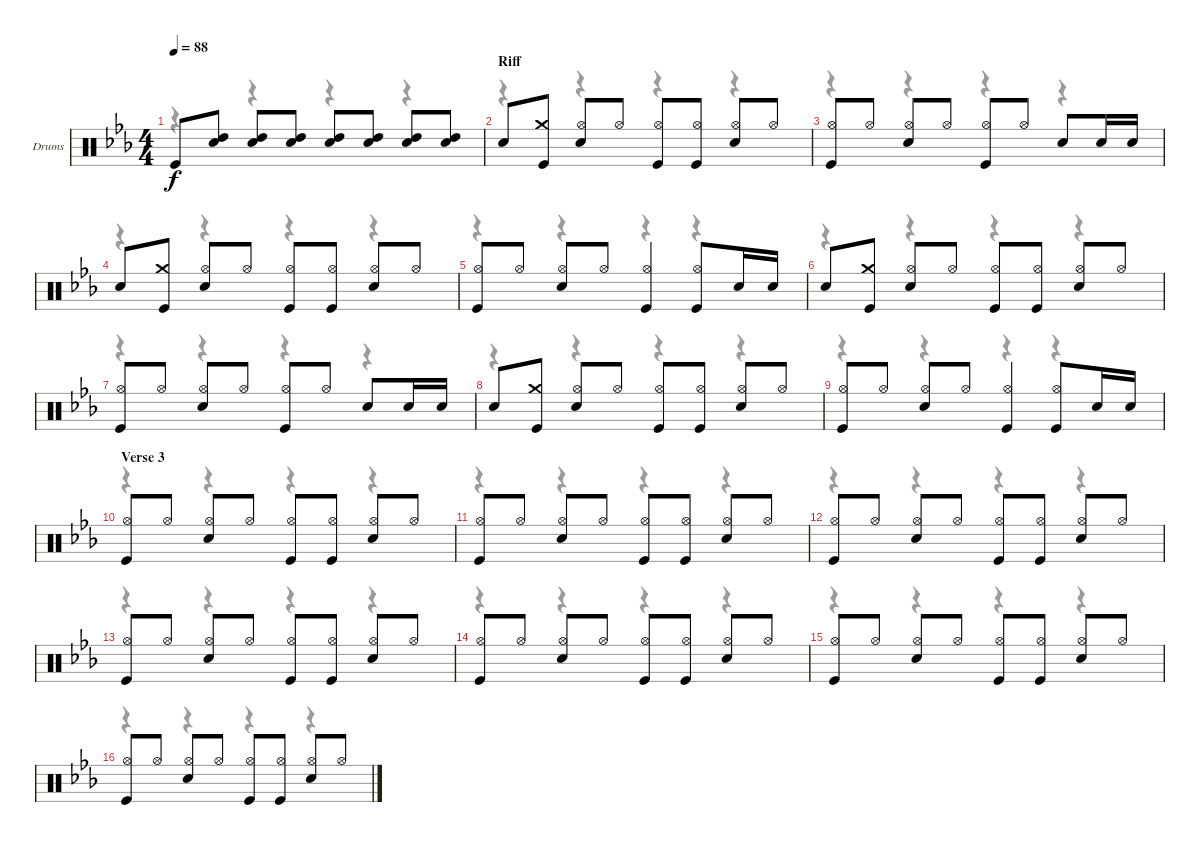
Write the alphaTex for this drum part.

\bracketExtendMode groupsimilarinstruments
\firstSystemTrackNameOrientation horizontal
\otherSystemsTrackNameOrientation horizontal
\track ("Ian Paice - Drums" "Drums") {instrument percussion}
\staff {score}
\articulation defaults
\voice
\ts (4 4)
\tempo 88
\clef neutral
\ks cminor "Kick (hit)".8{dy f}
("Snare (hit) 2" "High Tom (hit)").8 ("Snare (hit) 2" "High Tom (hit)").8 ("Snare (hit) 2" "High Tom (hit)").8 ("Snare (hit) 2" "High Tom (hit)").8 ("Snare (hit) 2" "High Tom (hit)").8 ("Snare (hit) 2" "High Tom (hit)").8 ("Snare (hit) 2" "High Tom (hit)").8 |
\section ("" "Riff")
"Snare (hit) 2".8 ("Crash medium (hit)" "Kick (hit)").8 ("Hi-Hat (open)" "Snare (hit) 2").8 "Hi-Hat (open)".8 ("Hi-Hat (open)" "Kick (hit)").8 ("Hi-Hat (open)" "Kick (hit)").8 ("Hi-Hat (open)" "Snare (hit) 2").8 "Hi-Hat (open)".8 |
("Hi-Hat (open)" "Kick (hit)").8 "Hi-Hat (open)".8 ("Hi-Hat (open)" "Snare (hit) 2").8 "Hi-Hat (open)".8 ("Hi-Hat (open)" "Kick (hit)").8 "Hi-Hat (open)".8 "Snare (hit) 2".8 "Snare (hit) 2".16 "Snare (hit) 2".16 |
"Snare (hit) 2".8 ("Crash medium (hit)" "Kick (hit)").8 ("Hi-Hat (open)" "Snare (hit) 2").8 "Hi-Hat (open)".8 ("Hi-Hat (open)" "Kick (hit)").8 ("Hi-Hat (open)" "Kick (hit)").8 ("Hi-Hat (open)" "Snare (hit) 2").8 "Hi-Hat (open)".8 |
("Hi-Hat (open)" "Kick (hit)").8 "Hi-Hat (open)".8 ("Hi-Hat (open)" "Snare (hit) 2").8 "Hi-Hat (open)".8 ("Hi-Hat (open)" "Kick (hit)").4 ("Hi-Hat (open)" "Kick (hit)").8 "Snare (hit) 2".16 "Snare (hit) 2".16 |
"Snare (hit) 2".8 ("Crash medium (hit)" "Kick (hit)").8 ("Hi-Hat (open)" "Snare (hit) 2").8 "Hi-Hat (open)".8 ("Hi-Hat (open)" "Kick (hit)").8 ("Hi-Hat (open)" "Kick (hit)").8 ("Hi-Hat (open)" "Snare (hit) 2").8 "Hi-Hat (open)".8 |
("Hi-Hat (open)" "Kick (hit)").8 "Hi-Hat (open)".8 ("Hi-Hat (open)" "Snare (hit) 2").8 "Hi-Hat (open)".8 ("Hi-Hat (open)" "Kick (hit)").8 "Hi-Hat (open)".8 "Snare (hit) 2".8 "Snare (hit) 2".16 "Snare (hit) 2".16 |
"Snare (hit) 2".8 ("Crash medium (hit)" "Kick (hit)").8 ("Hi-Hat (open)" "Snare (hit) 2").8 "Hi-Hat (open)".8 ("Hi-Hat (open)" "Kick (hit)").8 ("Hi-Hat (open)" "Kick (hit)").8 ("Hi-Hat (open)" "Snare (hit) 2").8 "Hi-Hat (open)".8 |
("Hi-Hat (open)" "Kick (hit)").8 "Hi-Hat (open)".8 ("Hi-Hat (open)" "Snare (hit) 2").8 "Hi-Hat (open)".8 ("Hi-Hat (open)" "Kick (hit)").4 ("Hi-Hat (open)" "Kick (hit)").8 "Snare (hit) 2".16 "Snare (hit) 2".16 |
\section ("" "Verse 3")
("Hi-Hat (open)" "Kick (hit)").8 "Hi-Hat (open)".8 ("Hi-Hat (open)" "Snare (hit) 2").8 "Hi-Hat (open)".8 ("Hi-Hat (open)" "Kick (hit)").8 ("Hi-Hat (open)" "Kick (hit)").8 ("Hi-Hat (open)" "Snare (hit) 2").8 "Hi-Hat (open)".8 |
("Hi-Hat (open)" "Kick (hit)").8 "Hi-Hat (open)".8 ("Hi-Hat (open)" "Snare (hit) 2").8 "Hi-Hat (open)".8 ("Hi-Hat (open)" "Kick (hit)").8 ("Hi-Hat (open)" "Kick (hit)").8 ("Hi-Hat (open)" "Snare (hit) 2").8 "Hi-Hat (open)".8 |
("Hi-Hat (open)" "Kick (hit)").8 "Hi-Hat (open)".8 ("Hi-Hat (open)" "Snare (hit) 2").8 "Hi-Hat (open)".8 ("Hi-Hat (open)" "Kick (hit)").8 ("Hi-Hat (open)" "Kick (hit)").8 ("Hi-Hat (open)" "Snare (hit) 2").8 "Hi-Hat (open)".8 |
("Hi-Hat (open)" "Kick (hit)").8 "Hi-Hat (open)".8 ("Hi-Hat (open)" "Snare (hit) 2").8 "Hi-Hat (open)".8 ("Hi-Hat (open)" "Kick (hit)").8 ("Hi-Hat (open)" "Kick (hit)").8 ("Hi-Hat (open)" "Snare (hit) 2").8 "Hi-Hat (open)".8 |
("Hi-Hat (open)" "Kick (hit)").8 "Hi-Hat (open)".8 ("Hi-Hat (open)" "Snare (hit) 2").8 "Hi-Hat (open)".8 ("Hi-Hat (open)" "Kick (hit)").8 ("Hi-Hat (open)" "Kick (hit)").8 ("Hi-Hat (open)" "Snare (hit) 2").8 "Hi-Hat (open)".8 |
("Hi-Hat (open)" "Kick (hit)").8 "Hi-Hat (open)".8 ("Hi-Hat (open)" "Snare (hit) 2").8 "Hi-Hat (open)".8 ("Hi-Hat (open)" "Kick (hit)").8 ("Hi-Hat (open)" "Kick (hit)").8 ("Hi-Hat (open)" "Snare (hit) 2").8 "Hi-Hat (open)".8 |
("Hi-Hat (open)" "Kick (hit)").8 "Hi-Hat (open)".8 ("Hi-Hat (open)" "Snare (hit) 2").8 "Hi-Hat (open)".8 ("Hi-Hat (open)" "Kick (hit)").8 ("Hi-Hat (open)" "Kick (hit)").8 ("Hi-Hat (open)" "Snare (hit) 2").8 "Hi-Hat (open)".8
\voice
\clef neutral
\ottava regular
\simile none
\ks cminor
r.4{dy mf} r.4 r.4 r.4 |
r.4 r.4 r.4 r.4 |
r.4 r.4 r.4 r.4 |
r.4 r.4 r.4 r.4 |
r.4 r.4 r.4 r.4 |
r.4 r.4 r.4 r.4 |
r.4 r.4 r.4 r.4 |
r.4 r.4 r.4 r.4 |
r.4 r.4 r.4 r.4 |
r.4 r.4 r.4 r.4 |
r.4 r.4 r.4 r.4 |
r.4 r.4 r.4 r.4 |
r.4 r.4 r.4 r.4 |
r.4 r.4 r.4 r.4 |
r.4 r.4 r.4 r.4 |
r.4 r.4 r.4 r.4
